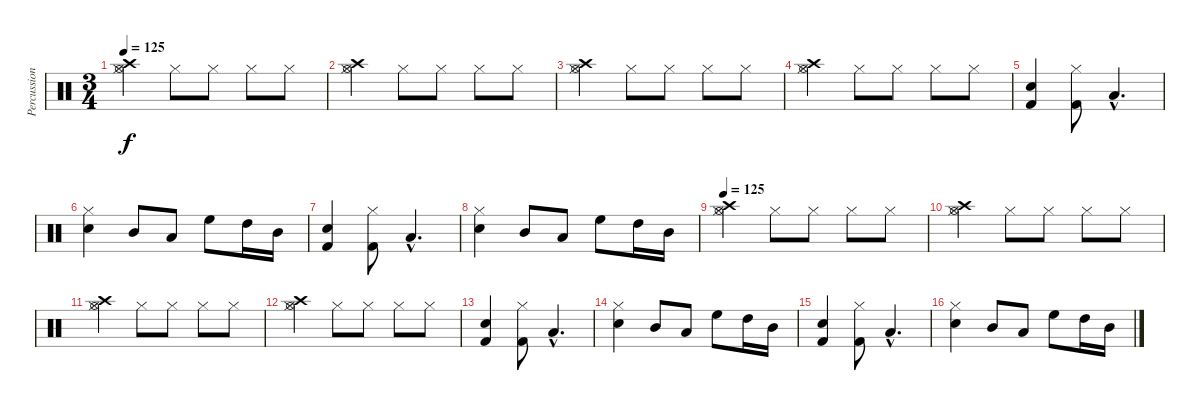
\track ("Percussion" "Percussion") {instrument percussion}
\staff {score}
\articulation defaults
\ts (3 4)
\tempo 125
\clef neutral
\ks c
("Hi-Hat (open)" "Crash high (hit)" "Hi-Hat (closed)").4{dy f} "Hi-Hat (closed)".8 "Hi-Hat (closed)".8 "Hi-Hat (closed)".8 "Hi-Hat (closed)".8 |
("Hi-Hat (open)" "Crash high (hit)" "Hi-Hat (closed)").4 "Hi-Hat (closed)".8 "Hi-Hat (closed)".8 "Hi-Hat (closed)".8 "Hi-Hat (closed)".8 |
("Hi-Hat (open)" "Crash high (hit)" "Hi-Hat (closed)").4 "Hi-Hat (closed)".8 "Hi-Hat (closed)".8 "Hi-Hat (closed)".8 "Hi-Hat (closed)".8 |
("Hi-Hat (open)" "Crash high (hit)" "Hi-Hat (closed)").4 "Hi-Hat (closed)".8 "Hi-Hat (closed)".8 "Hi-Hat (closed)".8 "Hi-Hat (closed)".8 |
("Kick (hit) 2" "Snare (hit) 2").4 ("Kick (hit) 2" "Hi-Hat (closed)").8 "Low Tom (hit)"{hac}.4{d} |
("Snare (hit) 2" "Hi-Hat (closed)").4 "Mid Tom (hit)".8 "Low Tom (hit)".8 "High Floor Tom (hit)".8 "High Tom (hit)".16 "Mid Tom (hit)".16 |
("Kick (hit) 2" "Snare (hit) 2").4 ("Kick (hit) 2" "Hi-Hat (closed)").8 "Low Tom (hit)"{hac}.4{d} |
("Snare (hit) 2" "Hi-Hat (closed)").4 "Mid Tom (hit)".8 "Low Tom (hit)".8 "High Floor Tom (hit)".8 "High Tom (hit)".16 "Mid Tom (hit)".16 |
\tempo 125
("Hi-Hat (open)" "Crash high (hit)" "Hi-Hat (closed)").4 "Hi-Hat (closed)".8 "Hi-Hat (closed)".8 "Hi-Hat (closed)".8 "Hi-Hat (closed)".8 |
("Hi-Hat (open)" "Crash high (hit)" "Hi-Hat (closed)").4 "Hi-Hat (closed)".8 "Hi-Hat (closed)".8 "Hi-Hat (closed)".8 "Hi-Hat (closed)".8 |
("Hi-Hat (open)" "Crash high (hit)" "Hi-Hat (closed)").4 "Hi-Hat (closed)".8 "Hi-Hat (closed)".8 "Hi-Hat (closed)".8 "Hi-Hat (closed)".8 |
("Hi-Hat (open)" "Crash high (hit)" "Hi-Hat (closed)").4 "Hi-Hat (closed)".8 "Hi-Hat (closed)".8 "Hi-Hat (closed)".8 "Hi-Hat (closed)".8 |
("Kick (hit) 2" "Snare (hit) 2").4 ("Kick (hit) 2" "Hi-Hat (closed)").8 "Low Tom (hit)"{hac}.4{d} |
("Snare (hit) 2" "Hi-Hat (closed)").4 "Mid Tom (hit)".8 "Low Tom (hit)".8 "High Floor Tom (hit)".8 "High Tom (hit)".16 "Mid Tom (hit)".16 |
("Kick (hit) 2" "Snare (hit) 2").4 ("Kick (hit) 2" "Hi-Hat (closed)").8 "Low Tom (hit)"{hac}.4{d} |
("Snare (hit) 2" "Hi-Hat (closed)").4 "Mid Tom (hit)".8 "Low Tom (hit)".8 "High Floor Tom (hit)".8 "High Tom (hit)".16 "Mid Tom (hit)".16
